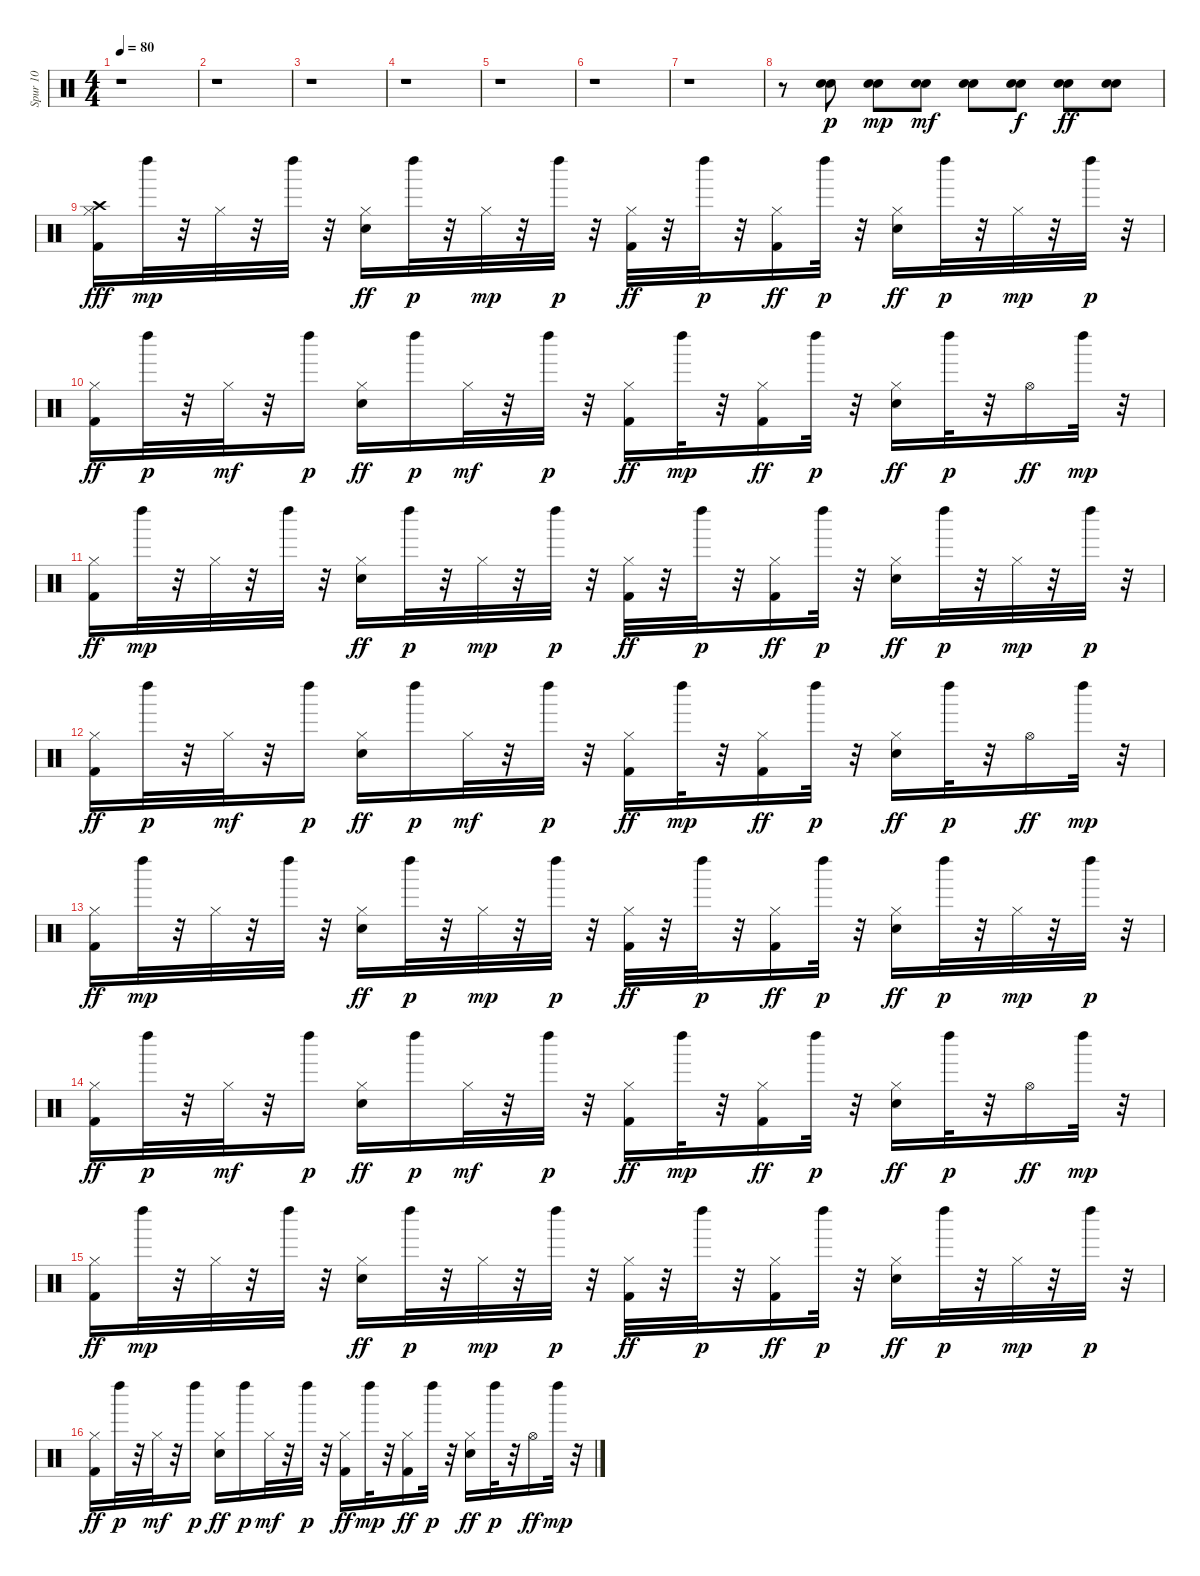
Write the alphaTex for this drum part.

\track ("Spur 10" "Spur 10") {instrument percussion}
\staff {score}
\articulation defaults
\ts (4 4)
\tempo 80
\clef neutral
\ks c
r.1{dy p} |
r.1 |
r.1 |
r.1 |
r.1 |
r.1 |
r.1 |
r.8 ("Electric Snare (hit)" "Electric Snare (hit)").8 ("Electric Snare (hit)" "Electric Snare (hit)").8{dy mp} ("Electric Snare (hit)" "Electric Snare (hit)").8{dy mf} ("Electric Snare (hit)" "Electric Snare (hit)").8 ("Electric Snare (hit)" "Electric Snare (hit)").8{dy f} ("Electric Snare (hit)" "Electric Snare (hit)").8{dy ff} ("Electric Snare (hit)" "Electric Snare (hit)").8 |
("Hi-Hat (closed)" "Kick (hit) 2" "Crash high (hit)").16{dy fff} "Left Maraca (hit)".32{dy mp} r.32 "Hi-Hat (closed)".32 r.32 "Left Maraca (hit)".32 r.32 ("Electric Snare (hit)" "Hi-Hat (closed)").16{dy ff} "Left Maraca (hit)".32{dy p} r.32 "Hi-Hat (closed)".32{dy mp} r.32 "Left Maraca (hit)".32{dy p} r.32 ("Hi-Hat (closed)" "Kick (hit) 2").32{dy ff} r.32 "Left Maraca (hit)".32{dy p} r.32 ("Hi-Hat (closed)" "Kick (hit) 2").16{dy ff} "Left Maraca (hit)".32{dy p} r.32 ("Electric Snare (hit)" "Hi-Hat (closed)").16{dy ff} "Left Maraca (hit)".32{dy p} r.32 "Hi-Hat (closed)".32{dy mp} r.32 "Left Maraca (hit)".32{dy p} r.32 |
("Hi-Hat (closed)" "Kick (hit) 2").16{dy ff} "Left Maraca (hit)".32{dy p} r.32 "Hi-Hat (closed)".32{dy mf} r.32 "Left Maraca (hit)".16{dy p} ("Electric Snare (hit)" "Hi-Hat (closed)").16{dy ff} "Left Maraca (hit)".16{dy p} "Hi-Hat (closed)".32{dy mf} r.32 "Left Maraca (hit)".32{dy p} r.32 ("Hi-Hat (closed)" "Kick (hit) 2").16{dy ff} "Left Maraca (hit)".32{dy mp} r.32 ("Hi-Hat (closed)" "Kick (hit) 2").16{dy ff} "Left Maraca (hit)".32{dy p} r.32 ("Electric Snare (hit)" "Hi-Hat (closed)").16{dy ff} "Left Maraca (hit)".32{dy p} r.32 "Hi-Hat (open)".16{dy ff} "Left Maraca (hit)".32{dy mp} r.32 |
("Hi-Hat (closed)" "Kick (hit) 2").16{dy ff} "Left Maraca (hit)".32{dy mp} r.32 "Hi-Hat (closed)".32 r.32 "Left Maraca (hit)".32 r.32 ("Electric Snare (hit)" "Hi-Hat (closed)").16{dy ff} "Left Maraca (hit)".32{dy p} r.32 "Hi-Hat (closed)".32{dy mp} r.32 "Left Maraca (hit)".32{dy p} r.32 ("Hi-Hat (closed)" "Kick (hit) 2").32{dy ff} r.32 "Left Maraca (hit)".32{dy p} r.32 ("Hi-Hat (closed)" "Kick (hit) 2").16{dy ff} "Left Maraca (hit)".32{dy p} r.32 ("Electric Snare (hit)" "Hi-Hat (closed)").16{dy ff} "Left Maraca (hit)".32{dy p} r.32 "Hi-Hat (closed)".32{dy mp} r.32 "Left Maraca (hit)".32{dy p} r.32 |
("Hi-Hat (closed)" "Kick (hit) 2").16{dy ff} "Left Maraca (hit)".32{dy p} r.32 "Hi-Hat (closed)".32{dy mf} r.32 "Left Maraca (hit)".16{dy p} ("Electric Snare (hit)" "Hi-Hat (closed)").16{dy ff} "Left Maraca (hit)".16{dy p} "Hi-Hat (closed)".32{dy mf} r.32 "Left Maraca (hit)".32{dy p} r.32 ("Hi-Hat (closed)" "Kick (hit) 2").16{dy ff} "Left Maraca (hit)".32{dy mp} r.32 ("Hi-Hat (closed)" "Kick (hit) 2").16{dy ff} "Left Maraca (hit)".32{dy p} r.32 ("Electric Snare (hit)" "Hi-Hat (closed)").16{dy ff} "Left Maraca (hit)".32{dy p} r.32 "Hi-Hat (open)".16{dy ff} "Left Maraca (hit)".32{dy mp} r.32 |
("Hi-Hat (closed)" "Kick (hit) 2").16{dy ff} "Left Maraca (hit)".32{dy mp} r.32 "Hi-Hat (closed)".32 r.32 "Left Maraca (hit)".32 r.32 ("Electric Snare (hit)" "Hi-Hat (closed)").16{dy ff} "Left Maraca (hit)".32{dy p} r.32 "Hi-Hat (closed)".32{dy mp} r.32 "Left Maraca (hit)".32{dy p} r.32 ("Hi-Hat (closed)" "Kick (hit) 2").32{dy ff} r.32 "Left Maraca (hit)".32{dy p} r.32 ("Hi-Hat (closed)" "Kick (hit) 2").16{dy ff} "Left Maraca (hit)".32{dy p} r.32 ("Electric Snare (hit)" "Hi-Hat (closed)").16{dy ff} "Left Maraca (hit)".32{dy p} r.32 "Hi-Hat (closed)".32{dy mp} r.32 "Left Maraca (hit)".32{dy p} r.32 |
("Hi-Hat (closed)" "Kick (hit) 2").16{dy ff} "Left Maraca (hit)".32{dy p} r.32 "Hi-Hat (closed)".32{dy mf} r.32 "Left Maraca (hit)".16{dy p} ("Electric Snare (hit)" "Hi-Hat (closed)").16{dy ff} "Left Maraca (hit)".16{dy p} "Hi-Hat (closed)".32{dy mf} r.32 "Left Maraca (hit)".32{dy p} r.32 ("Hi-Hat (closed)" "Kick (hit) 2").16{dy ff} "Left Maraca (hit)".32{dy mp} r.32 ("Hi-Hat (closed)" "Kick (hit) 2").16{dy ff} "Left Maraca (hit)".32{dy p} r.32 ("Electric Snare (hit)" "Hi-Hat (closed)").16{dy ff} "Left Maraca (hit)".32{dy p} r.32 "Hi-Hat (open)".16{dy ff} "Left Maraca (hit)".32{dy mp} r.32 |
("Hi-Hat (closed)" "Kick (hit) 2").16{dy ff} "Left Maraca (hit)".32{dy mp} r.32 "Hi-Hat (closed)".32 r.32 "Left Maraca (hit)".32 r.32 ("Electric Snare (hit)" "Hi-Hat (closed)").16{dy ff} "Left Maraca (hit)".32{dy p} r.32 "Hi-Hat (closed)".32{dy mp} r.32 "Left Maraca (hit)".32{dy p} r.32 ("Hi-Hat (closed)" "Kick (hit) 2").32{dy ff} r.32 "Left Maraca (hit)".32{dy p} r.32 ("Hi-Hat (closed)" "Kick (hit) 2").16{dy ff} "Left Maraca (hit)".32{dy p} r.32 ("Electric Snare (hit)" "Hi-Hat (closed)").16{dy ff} "Left Maraca (hit)".32{dy p} r.32 "Hi-Hat (closed)".32{dy mp} r.32 "Left Maraca (hit)".32{dy p} r.32 |
("Hi-Hat (closed)" "Kick (hit) 2").16{dy ff} "Left Maraca (hit)".32{dy p} r.32 "Hi-Hat (closed)".32{dy mf} r.32 "Left Maraca (hit)".16{dy p} ("Electric Snare (hit)" "Hi-Hat (closed)").16{dy ff} "Left Maraca (hit)".16{dy p} "Hi-Hat (closed)".32{dy mf} r.32 "Left Maraca (hit)".32{dy p} r.32 ("Hi-Hat (closed)" "Kick (hit) 2").16{dy ff} "Left Maraca (hit)".32{dy mp} r.32 ("Hi-Hat (closed)" "Kick (hit) 2").16{dy ff} "Left Maraca (hit)".32{dy p} r.32 ("Electric Snare (hit)" "Hi-Hat (closed)").16{dy ff} "Left Maraca (hit)".32{dy p} r.32 "Hi-Hat (open)".16{dy ff} "Left Maraca (hit)".32{dy mp} r.32
